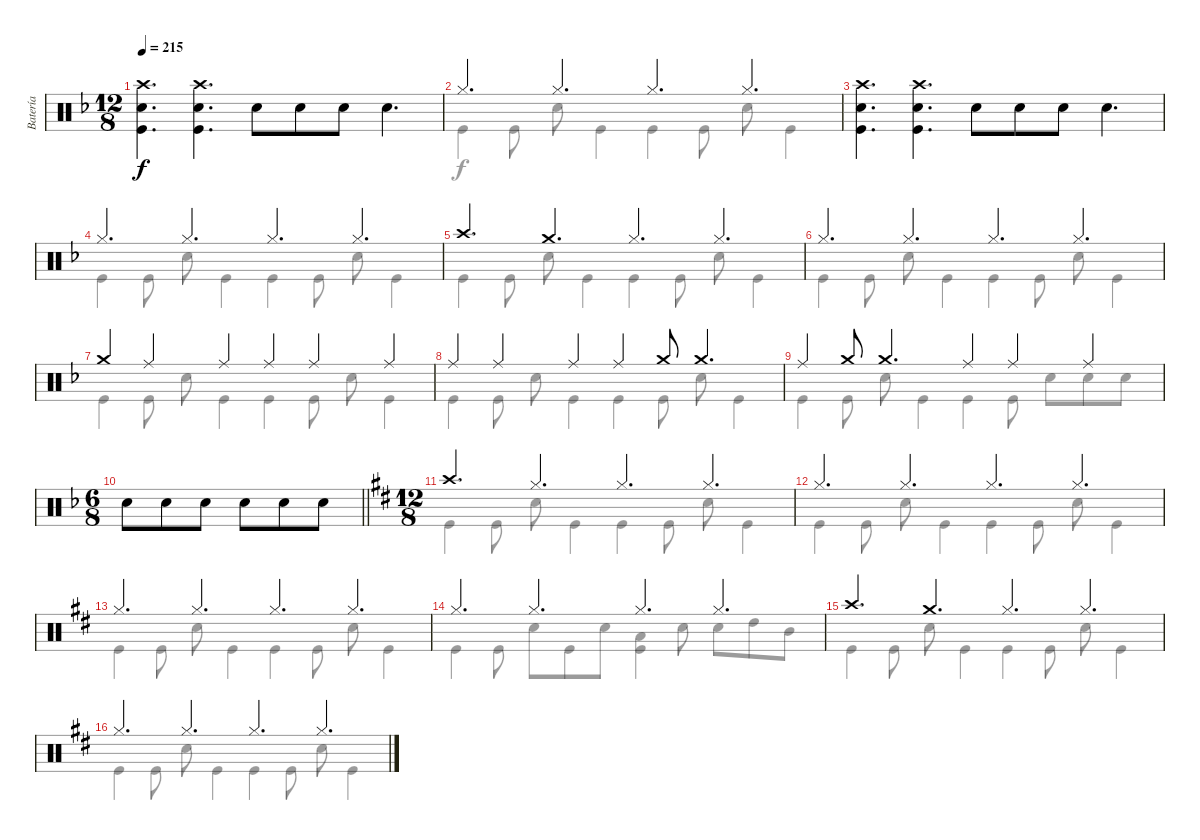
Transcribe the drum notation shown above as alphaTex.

\track ("Batería" "Batería") {instrument percussion}
\staff {score}
\articulation defaults
\voice
\ts (12 8)
\tempo 215
\clef neutral
\ks dminor
("Crash high (hit)" "Snare (hit) 2" "Kick (hit)").4{d dy f} ("Crash high (hit)" "Snare (hit) 2" "Kick (hit)").4{d} "Snare (hit) 2".8 "Snare (hit) 2".8 "Snare (hit) 2".8 "Snare (hit) 2".4{d} |
"Hi-Hat (closed)".4{d} "Hi-Hat (closed)".4{d} "Hi-Hat (closed)".4{d} "Hi-Hat (closed)".4{d} |
("Crash high (hit)" "Snare (hit) 2" "Kick (hit)").4{d} ("Crash high (hit)" "Snare (hit) 2" "Kick (hit)").4{d} "Snare (hit) 2".8 "Snare (hit) 2".8 "Snare (hit) 2".8 "Snare (hit) 2".4{d} |
"Hi-Hat (closed)".4{d} "Hi-Hat (closed)".4{d} "Hi-Hat (closed)".4{d} "Hi-Hat (closed)".4{d} |
"Crash high (hit)".4{d} "Crash medium (hit)".4{d} "Hi-Hat (closed)".4{d} "Hi-Hat (closed)".4{d} |
"Hi-Hat (closed)".4{d} "Hi-Hat (closed)".4{d} "Hi-Hat (closed)".4{d} "Hi-Hat (closed)".4{d} |
"Crash medium (hit)".4 "Ride (middle)".4 "Ride (middle)".4 "Ride (middle)".4 "Ride (middle)".4 "Ride (middle)".4 |
"Ride (middle)".4 "Ride (middle)".4 "Ride (middle)".4 "Ride (middle)".4 "Crash medium (hit)".8 "Crash medium (hit)".4{d} |
"Ride (middle)".4 "Crash medium (hit)".8 "Crash medium (hit)".4{d} "Ride (middle)".4 "Ride (middle)".4 "Ride (middle)".4 |
\ts (6 8)
\barLineRight lightlight "Snare (hit) 2".8 "Snare (hit) 2".8 "Snare (hit) 2".8 "Snare (hit) 2".8 "Snare (hit) 2".8 "Snare (hit) 2".8
|
\ts (12 8)
\ks d "Crash high (hit)".4{d} "Hi-Hat (closed)".4{d} "Hi-Hat (closed)".4{d} "Hi-Hat (closed)".4{d}
|
"Hi-Hat (closed)".4{d} "Hi-Hat (closed)".4{d} "Hi-Hat (closed)".4{d} "Hi-Hat (closed)".4{d} |
"Hi-Hat (closed)".4{d} "Hi-Hat (closed)".4{d} "Hi-Hat (closed)".4{d} "Hi-Hat (closed)".4{d} |
"Hi-Hat (closed)".4{d} "Hi-Hat (closed)".4{d} "Hi-Hat (closed)".4{d} "Hi-Hat (closed)".4{d} |
"Crash high (hit)".4{d} "Crash medium (hit)".4{d} "Hi-Hat (closed)".4{d} "Hi-Hat (closed)".4{d} |
"Hi-Hat (closed)".4{d} "Hi-Hat (closed)".4{d} "Hi-Hat (closed)".4{d} "Hi-Hat (closed)".4{d}
\voice
\clef neutral
\ottava regular
\simile none
\ks dminor
|
"Kick (hit)".4 "Kick (hit)".8 "Snare (hit) 2".8 "Kick (hit)".4 "Kick (hit)".4 "Kick (hit)".8 "Snare (hit) 2".8 "Kick (hit)".4 |
|
"Kick (hit)".4 "Kick (hit)".8 "Snare (hit) 2".8 "Kick (hit)".4 "Kick (hit)".4 "Kick (hit)".8 "Snare (hit) 2".8 "Kick (hit)".4 |
"Kick (hit)".4 "Kick (hit)".8 "Snare (hit) 2".8 "Kick (hit)".4 "Kick (hit)".4 "Kick (hit)".8 "Snare (hit) 2".8 "Kick (hit)".4 |
"Kick (hit)".4 "Kick (hit)".8 "Snare (hit) 2".8 "Kick (hit)".4 "Kick (hit)".4 "Kick (hit)".8 "Snare (hit) 2".8 "Kick (hit)".4 |
"Kick (hit)".4 "Kick (hit)".8 "Snare (hit) 2".8 "Kick (hit)".4 "Kick (hit)".4 "Kick (hit)".8 "Snare (hit) 2".8 "Kick (hit)".4 |
"Kick (hit)".4 "Kick (hit)".8 "Snare (hit) 2".8 "Kick (hit)".4 "Kick (hit)".4 "Kick (hit)".8 "Snare (hit) 2".8 "Kick (hit)".4 |
"Kick (hit)".4 "Kick (hit)".8 "Snare (hit) 2".8 "Kick (hit)".4 "Kick (hit)".4 "Kick (hit)".8 "Snare (hit) 2".8 "Snare (hit) 2".8 "Snare (hit) 2".8 |
\barLineRight lightlight
|
\ks d "Kick (hit)".4 "Kick (hit)".8 "Snare (hit) 2".8 "Kick (hit)".4 "Kick (hit)".4 "Kick (hit)".8 "Snare (hit) 2".8 "Kick (hit)".4
|
"Kick (hit)".4 "Kick (hit)".8 "Snare (hit) 2".8 "Kick (hit)".4 "Kick (hit)".4 "Kick (hit)".8 "Snare (hit) 2".8 "Kick (hit)".4 |
"Kick (hit)".4 "Kick (hit)".8 "Snare (hit) 2".8 "Kick (hit)".4 "Kick (hit)".4 "Kick (hit)".8 "Snare (hit) 2".8 "Kick (hit)".4 |
"Kick (hit)".4 "Kick (hit)".8 "Snare (hit) 2".8 "Kick (hit)".8 "Snare (hit) 2".8 ("Low Tom (hit)" "Kick (hit)").4 "Snare (hit) 2".8 "Snare (hit) 2".8 "High Tom (hit)".8 "Mid Tom (hit)".8 |
"Kick (hit)".4 "Kick (hit)".8 "Snare (hit) 2".8 "Kick (hit)".4 "Kick (hit)".4 "Kick (hit)".8 "Snare (hit) 2".8 "Kick (hit)".4 |
"Kick (hit)".4 "Kick (hit)".8 "Snare (hit) 2".8 "Kick (hit)".4 "Kick (hit)".4 "Kick (hit)".8 "Snare (hit) 2".8 "Kick (hit)".4
